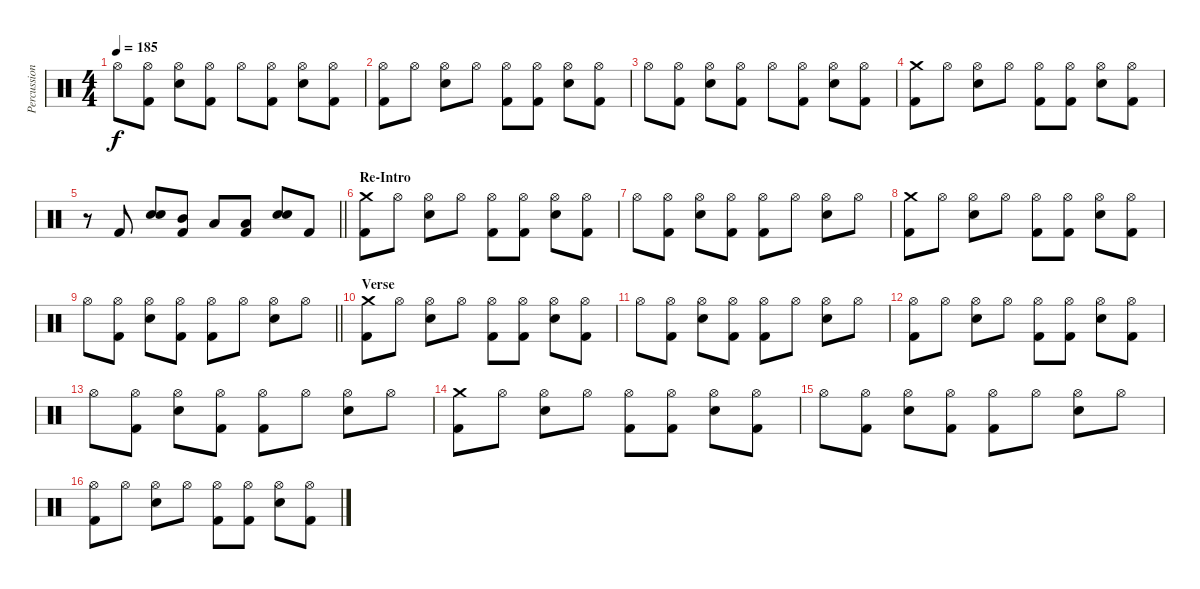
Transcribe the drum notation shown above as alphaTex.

\track ("Percussion" "Percussion") {instrument percussion}
\staff {score}
\articulation defaults
\ts (4 4)
\tempo 185
\clef neutral
\ks c "Hi-Hat (open)".8{dy f}
("Hi-Hat (open)" "Kick (hit) 2").8 ("Hi-Hat (open)" "Electric Snare (hit)").8 ("Hi-Hat (open)" "Kick (hit) 2").8 "Hi-Hat (open)".8 ("Hi-Hat (open)" "Kick (hit) 2").8 ("Hi-Hat (open)" "Electric Snare (hit)").8 ("Hi-Hat (open)" "Kick (hit) 2").8 |
("Hi-Hat (open)" "Kick (hit) 2").8 "Hi-Hat (open)".8 ("Hi-Hat (open)" "Electric Snare (hit)").8 "Hi-Hat (open)".8 ("Hi-Hat (open)" "Kick (hit) 2").8 ("Hi-Hat (open)" "Kick (hit) 2").8 ("Hi-Hat (open)" "Electric Snare (hit)").8 ("Hi-Hat (open)" "Kick (hit) 2").8 |
"Hi-Hat (open)".8 ("Hi-Hat (open)" "Kick (hit) 2").8 ("Hi-Hat (open)" "Electric Snare (hit)").8 ("Hi-Hat (open)" "Kick (hit) 2").8 "Hi-Hat (open)".8 ("Hi-Hat (open)" "Kick (hit) 2").8 ("Hi-Hat (open)" "Electric Snare (hit)").8 ("Hi-Hat (open)" "Kick (hit) 2").8 |
("Crash medium (hit)" "Kick (hit) 2").8 "Hi-Hat (open)".8 ("Hi-Hat (open)" "Electric Snare (hit)").8 "Hi-Hat (open)".8 ("Hi-Hat (open)" "Kick (hit) 2").8 ("Hi-Hat (open)" "Kick (hit) 2").8 ("Hi-Hat (open)" "Electric Snare (hit)").8 ("Hi-Hat (open)" "Kick (hit) 2").8 |
\barLineRight lightlight
r.8 "Kick (hit) 2".8 ("Electric Snare (hit)" "Electric Snare (hit)").8 ("Mid Tom (hit)" "Kick (hit) 2").8 "Low Floor Tom (hit)".8 ("Low Floor Tom (hit)" "Kick (hit) 2").8 ("Electric Snare (hit)" "Electric Snare (hit)").8 "Kick (hit) 2".8 |
\section ("" "Re-Intro")
("Crash medium (hit)" "Kick (hit) 2").8 "Hi-Hat (open)".8 ("Hi-Hat (open)" "Electric Snare (hit)").8 "Hi-Hat (open)".8 ("Hi-Hat (open)" "Kick (hit) 2").8 ("Hi-Hat (open)" "Kick (hit) 2").8 ("Hi-Hat (open)" "Electric Snare (hit)").8 ("Hi-Hat (open)" "Kick (hit) 2").8 |
"Hi-Hat (open)".8 ("Hi-Hat (open)" "Kick (hit) 2").8 ("Hi-Hat (open)" "Electric Snare (hit)").8 ("Hi-Hat (open)" "Kick (hit) 2").8 ("Hi-Hat (open)" "Kick (hit) 2").8 "Hi-Hat (open)".8 ("Hi-Hat (open)" "Electric Snare (hit)").8 "Hi-Hat (open)".8 |
("Crash medium (hit)" "Kick (hit) 2").8 "Hi-Hat (open)".8 ("Hi-Hat (open)" "Electric Snare (hit)").8 "Hi-Hat (open)".8 ("Hi-Hat (open)" "Kick (hit) 2").8 ("Hi-Hat (open)" "Kick (hit) 2").8 ("Hi-Hat (open)" "Electric Snare (hit)").8 ("Hi-Hat (open)" "Kick (hit) 2").8 |
\barLineRight lightlight "Hi-Hat (open)".8
("Hi-Hat (open)" "Kick (hit) 2").8 ("Hi-Hat (open)" "Electric Snare (hit)").8 ("Hi-Hat (open)" "Kick (hit) 2").8 ("Hi-Hat (open)" "Kick (hit) 2").8 "Hi-Hat (open)".8 ("Hi-Hat (open)" "Electric Snare (hit)").8 "Hi-Hat (open)".8 |
\section ("" "Verse")
("Crash medium (hit)" "Kick (hit) 2").8 "Hi-Hat (open)".8 ("Hi-Hat (open)" "Electric Snare (hit)").8 "Hi-Hat (open)".8 ("Hi-Hat (open)" "Kick (hit) 2").8 ("Hi-Hat (open)" "Kick (hit) 2").8 ("Hi-Hat (open)" "Electric Snare (hit)").8 ("Hi-Hat (open)" "Kick (hit) 2").8 |
"Hi-Hat (open)".8 ("Hi-Hat (open)" "Kick (hit) 2").8 ("Hi-Hat (open)" "Electric Snare (hit)").8 ("Hi-Hat (open)" "Kick (hit) 2").8 ("Hi-Hat (open)" "Kick (hit) 2").8 "Hi-Hat (open)".8 ("Hi-Hat (open)" "Electric Snare (hit)").8 "Hi-Hat (open)".8 |
("Hi-Hat (open)" "Kick (hit) 2").8 "Hi-Hat (open)".8 ("Hi-Hat (open)" "Electric Snare (hit)").8 "Hi-Hat (open)".8 ("Hi-Hat (open)" "Kick (hit) 2").8 ("Hi-Hat (open)" "Kick (hit) 2").8 ("Hi-Hat (open)" "Electric Snare (hit)").8 ("Hi-Hat (open)" "Kick (hit) 2").8 |
"Hi-Hat (open)".8 ("Hi-Hat (open)" "Kick (hit) 2").8 ("Hi-Hat (open)" "Electric Snare (hit)").8 ("Hi-Hat (open)" "Kick (hit) 2").8 ("Hi-Hat (open)" "Kick (hit) 2").8 "Hi-Hat (open)".8 ("Hi-Hat (open)" "Electric Snare (hit)").8 "Hi-Hat (open)".8 |
("Crash medium (hit)" "Kick (hit) 2").8 "Hi-Hat (open)".8 ("Hi-Hat (open)" "Electric Snare (hit)").8 "Hi-Hat (open)".8 ("Hi-Hat (open)" "Kick (hit) 2").8 ("Hi-Hat (open)" "Kick (hit) 2").8 ("Hi-Hat (open)" "Electric Snare (hit)").8 ("Hi-Hat (open)" "Kick (hit) 2").8 |
"Hi-Hat (open)".8 ("Hi-Hat (open)" "Kick (hit) 2").8 ("Hi-Hat (open)" "Electric Snare (hit)").8 ("Hi-Hat (open)" "Kick (hit) 2").8 ("Hi-Hat (open)" "Kick (hit) 2").8 "Hi-Hat (open)".8 ("Hi-Hat (open)" "Electric Snare (hit)").8 "Hi-Hat (open)".8 |
("Hi-Hat (open)" "Kick (hit) 2").8 "Hi-Hat (open)".8 ("Hi-Hat (open)" "Electric Snare (hit)").8 "Hi-Hat (open)".8 ("Hi-Hat (open)" "Kick (hit) 2").8 ("Hi-Hat (open)" "Kick (hit) 2").8 ("Hi-Hat (open)" "Electric Snare (hit)").8 ("Hi-Hat (open)" "Kick (hit) 2").8
